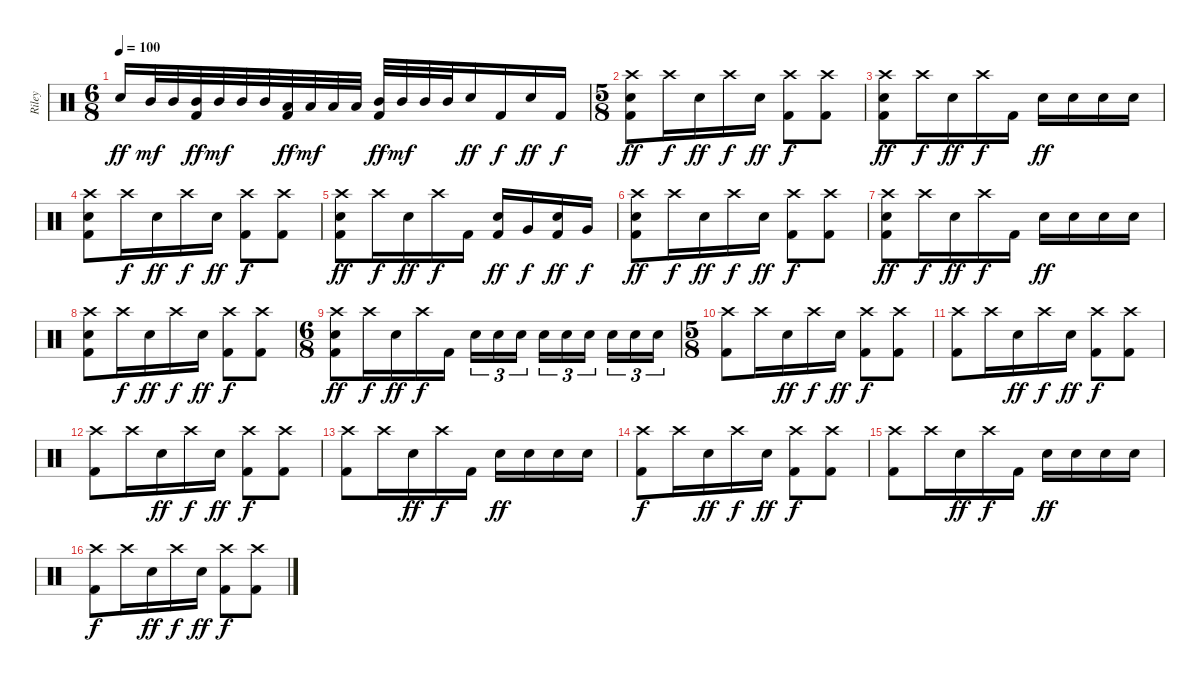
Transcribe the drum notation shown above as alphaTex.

\track ("Riley" "Riley") {instrument percussion}
\staff {score}
\articulation defaults
\ts (6 8)
\tempo 100
\clef neutral
\ks c "Electric Snare (hit)".16{dy ff} "Mid Tom (hit)".32{dy mf} "Mid Tom (hit)".32
("Mid Tom (hit)" "Kick (hit) 2").32{dy ff} "Mid Tom (hit)".32{dy mf} "Mid Tom (hit)".32 "Mid Tom (hit)".32 ("Low Tom (hit)" "Kick (hit) 2").32{dy ff} "Low Tom (hit)".32{dy mf} "Low Tom (hit)".32 "Low Tom (hit)".32 ("Mid Tom (hit)" "Kick (hit) 2").32{dy ff} "Mid Tom (hit)".32{dy mf} "Mid Tom (hit)".32 "Mid Tom (hit)".32 "Electric Snare (hit)".16{dy ff} "Kick (hit) 2".16{dy f} "Electric Snare (hit)".16{dy ff} "Kick (hit) 2".16{dy f} |
\ts (5 8)
("Crash high (hit)" "Electric Snare (hit)" "Kick (hit) 2").8{dy ff} "Crash high (hit)".16{dy f} "Electric Snare (hit)".16{dy ff} "Crash high (hit)".16{dy f} "Electric Snare (hit)".16{dy ff} ("Crash high (hit)" "Kick (hit) 2").8{dy f} ("Crash high (hit)" "Kick (hit) 2").8 |
("Crash high (hit)" "Electric Snare (hit)" "Kick (hit) 2").8{dy ff} "Crash high (hit)".16{dy f} "Electric Snare (hit)".16{dy ff} "Crash high (hit)".16{dy f} "Kick (hit) 2".16 "Electric Snare (hit)".16{dy ff} "Electric Snare (hit)".16 "Electric Snare (hit)".16 "Electric Snare (hit)".16 |
("Crash high (hit)" "Electric Snare (hit)" "Kick (hit) 2").8 "Crash high (hit)".16{dy f} "Electric Snare (hit)".16{dy ff} "Crash high (hit)".16{dy f} "Electric Snare (hit)".16{dy ff} ("Crash high (hit)" "Kick (hit) 2").8{dy f} ("Crash high (hit)" "Kick (hit) 2").8 |
("Crash high (hit)" "Electric Snare (hit)" "Kick (hit) 2").8{dy ff} "Crash high (hit)".16{dy f} "Electric Snare (hit)".16{dy ff} "Crash high (hit)".16{dy f} "Kick (hit) 2".16 ("Electric Snare (hit)" "Kick (hit) 2").16{dy ff} "Very Low Tom (hit)".16{dy f} ("Electric Snare (hit)" "Kick (hit) 2").16{dy ff} "Very Low Tom (hit)".16{dy f} |
("Crash high (hit)" "Electric Snare (hit)" "Kick (hit) 2").8{dy ff} "Crash high (hit)".16{dy f} "Electric Snare (hit)".16{dy ff} "Crash high (hit)".16{dy f} "Electric Snare (hit)".16{dy ff} ("Crash high (hit)" "Kick (hit) 2").8{dy f} ("Crash high (hit)" "Kick (hit) 2").8 |
("Crash high (hit)" "Electric Snare (hit)" "Kick (hit) 2").8{dy ff} "Crash high (hit)".16{dy f} "Electric Snare (hit)".16{dy ff} "Crash high (hit)".16{dy f} "Kick (hit) 2".16 "Electric Snare (hit)".16{dy ff} "Electric Snare (hit)".16 "Electric Snare (hit)".16 "Electric Snare (hit)".16 |
("Crash high (hit)" "Electric Snare (hit)" "Kick (hit) 2").8 "Crash high (hit)".16{dy f} "Electric Snare (hit)".16{dy ff} "Crash high (hit)".16{dy f} "Electric Snare (hit)".16{dy ff} ("Crash high (hit)" "Kick (hit) 2").8{dy f} ("Crash high (hit)" "Kick (hit) 2").8 |
\ts (6 8)
("Crash high (hit)" "Electric Snare (hit)" "Kick (hit) 2").8{dy ff} "Crash high (hit)".16{dy f} "Electric Snare (hit)".16{dy ff} "Crash high (hit)".16{dy f} "Kick (hit) 2".16 "Electric Snare (hit)".16{tu (3 2)} "Electric Snare (hit)".16{tu (3 2)} "Electric Snare (hit)".16{tu (3 2) beam splitsecondary} "Electric Snare (hit)".16{tu (3 2)} "Electric Snare (hit)".16{tu (3 2)} "Electric Snare (hit)".16{tu (3 2) beam splitsecondary} "Electric Snare (hit)".16{tu (3 2)} "Electric Snare (hit)".16{tu (3 2)} "Electric Snare (hit)".16{tu (3 2)} |
\ts (5 8)
("Crash high (hit)" "Kick (hit) 2").8 "Crash high (hit)".16 "Electric Snare (hit)".16{dy ff} "Crash high (hit)".16{dy f} "Electric Snare (hit)".16{dy ff} ("Crash high (hit)" "Kick (hit) 2").8{dy f} ("Crash high (hit)" "Kick (hit) 2").8 |
("Crash high (hit)" "Kick (hit) 2").8 "Crash high (hit)".16 "Electric Snare (hit)".16{dy ff} "Crash high (hit)".16{dy f} "Electric Snare (hit)".16{dy ff} ("Crash high (hit)" "Kick (hit) 2").8{dy f} ("Crash high (hit)" "Kick (hit) 2").8 |
("Crash high (hit)" "Kick (hit) 2").8 "Crash high (hit)".16 "Electric Snare (hit)".16{dy ff} "Crash high (hit)".16{dy f} "Electric Snare (hit)".16{dy ff} ("Crash high (hit)" "Kick (hit) 2").8{dy f} ("Crash high (hit)" "Kick (hit) 2").8 |
("Crash high (hit)" "Kick (hit) 2").8 "Crash high (hit)".16 "Electric Snare (hit)".16{dy ff} "Crash high (hit)".16{dy f} "Kick (hit) 2".16 "Electric Snare (hit)".16{dy ff} "Electric Snare (hit)".16 "Electric Snare (hit)".16 "Electric Snare (hit)".16 |
("Crash high (hit)" "Kick (hit) 2").8{dy f} "Crash high (hit)".16 "Electric Snare (hit)".16{dy ff} "Crash high (hit)".16{dy f} "Electric Snare (hit)".16{dy ff} ("Crash high (hit)" "Kick (hit) 2").8{dy f} ("Crash high (hit)" "Kick (hit) 2").8 |
("Crash high (hit)" "Kick (hit) 2").8 "Crash high (hit)".16 "Electric Snare (hit)".16{dy ff} "Crash high (hit)".16{dy f} "Kick (hit) 2".16 "Electric Snare (hit)".16{dy ff} "Electric Snare (hit)".16 "Electric Snare (hit)".16 "Electric Snare (hit)".16 |
("Crash high (hit)" "Kick (hit) 2").8{dy f} "Crash high (hit)".16 "Electric Snare (hit)".16{dy ff} "Crash high (hit)".16{dy f} "Electric Snare (hit)".16{dy ff} ("Crash high (hit)" "Kick (hit) 2").8{dy f} ("Crash high (hit)" "Kick (hit) 2").8
